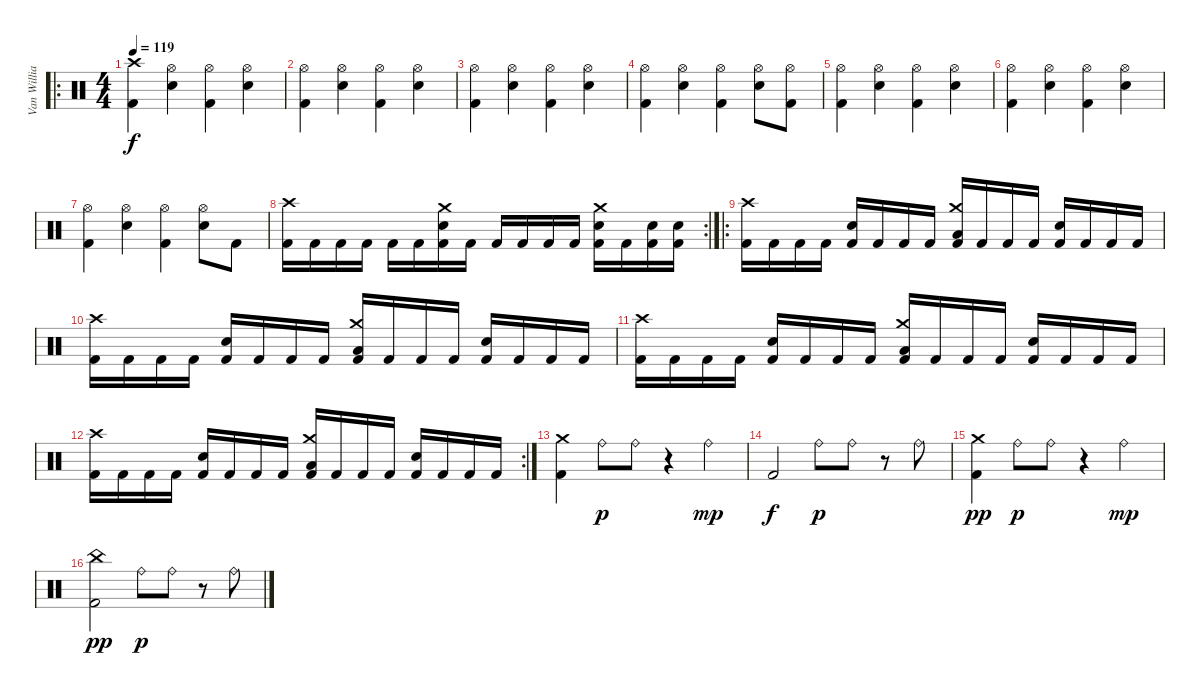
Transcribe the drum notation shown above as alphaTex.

\track ("Van Williams" "Van Willia") {instrument percussion}
\staff {score}
\articulation defaults
\ro
\ts (4 4)
\tempo 119
\clef neutral
\ks c
("Crash high (hit)" "Kick (hit) 2").4{dy f} ("Hi-Hat (open)" "Electric Snare (hit)").4 ("Hi-Hat (open)" "Kick (hit) 2").4 ("Hi-Hat (open)" "Electric Snare (hit)").4 |
("Hi-Hat (open)" "Kick (hit) 2").4 ("Hi-Hat (open)" "Electric Snare (hit)").4 ("Hi-Hat (open)" "Kick (hit) 2").4 ("Hi-Hat (open)" "Electric Snare (hit)").4 |
("Hi-Hat (open)" "Kick (hit) 2").4 ("Hi-Hat (open)" "Electric Snare (hit)").4 ("Hi-Hat (open)" "Kick (hit) 2").4 ("Hi-Hat (open)" "Electric Snare (hit)").4 |
("Hi-Hat (open)" "Kick (hit) 2").4 ("Hi-Hat (open)" "Electric Snare (hit)").4 ("Hi-Hat (open)" "Kick (hit) 2").4 ("Hi-Hat (open)" "Electric Snare (hit)").8 ("Hi-Hat (open)" "Kick (hit) 2").8 |
("Hi-Hat (open)" "Kick (hit) 2").4 ("Hi-Hat (open)" "Electric Snare (hit)").4 ("Hi-Hat (open)" "Kick (hit) 2").4 ("Hi-Hat (open)" "Electric Snare (hit)").4 |
("Hi-Hat (open)" "Kick (hit) 2").4 ("Hi-Hat (open)" "Electric Snare (hit)").4 ("Hi-Hat (open)" "Kick (hit) 2").4 ("Hi-Hat (open)" "Electric Snare (hit)").4 |
("Hi-Hat (open)" "Kick (hit) 2").4 ("Hi-Hat (open)" "Electric Snare (hit)").4 ("Hi-Hat (open)" "Kick (hit) 2").4 ("Hi-Hat (open)" "Electric Snare (hit)").8 "Kick (hit) 2".8 |
\rc 2
("Crash high (hit)" "Kick (hit) 2").16 "Kick (hit) 2".16 "Kick (hit) 2".16 "Kick (hit) 2".16 "Kick (hit) 2".16 "Kick (hit) 2".16 ("Crash medium (hit)" "Electric Snare (hit)" "Kick (hit) 2").16 "Kick (hit) 2".16 "Kick (hit) 2".16 "Kick (hit) 2".16 "Kick (hit) 2".16 "Kick (hit) 2".16 ("Crash medium (hit)" "Electric Snare (hit)" "Kick (hit) 2").16 "Kick (hit) 2".16 ("Electric Snare (hit)" "Kick (hit) 2").16 ("Electric Snare (hit)" "Kick (hit) 2").16 |
\ro
("Crash high (hit)" "Kick (hit) 2").16 "Kick (hit) 2".16 "Kick (hit) 2".16 "Kick (hit) 2".16 ("Electric Snare (hit)" "Kick (hit) 2").16 "Kick (hit) 2".16 "Kick (hit) 2".16 "Kick (hit) 2".16 ("Crash medium (hit)" "Low Floor Tom (hit)" "Kick (hit) 2").16 "Kick (hit) 2".16 "Kick (hit) 2".16 "Kick (hit) 2".16 ("Electric Snare (hit)" "Kick (hit) 2").16 "Kick (hit) 2".16 "Kick (hit) 2".16 "Kick (hit) 2".16 |
("Crash high (hit)" "Kick (hit) 2").16 "Kick (hit) 2".16 "Kick (hit) 2".16 "Kick (hit) 2".16 ("Electric Snare (hit)" "Kick (hit) 2").16 "Kick (hit) 2".16 "Kick (hit) 2".16 "Kick (hit) 2".16 ("Crash medium (hit)" "Low Floor Tom (hit)" "Kick (hit) 2").16 "Kick (hit) 2".16 "Kick (hit) 2".16 "Kick (hit) 2".16 ("Electric Snare (hit)" "Kick (hit) 2").16 "Kick (hit) 2".16 "Kick (hit) 2".16 "Kick (hit) 2".16 |
("Crash high (hit)" "Kick (hit) 2").16 "Kick (hit) 2".16 "Kick (hit) 2".16 "Kick (hit) 2".16 ("Electric Snare (hit)" "Kick (hit) 2").16 "Kick (hit) 2".16 "Kick (hit) 2".16 "Kick (hit) 2".16 ("Crash medium (hit)" "Low Floor Tom (hit)" "Kick (hit) 2").16 "Kick (hit) 2".16 "Kick (hit) 2".16 "Kick (hit) 2".16 ("Electric Snare (hit)" "Kick (hit) 2").16 "Kick (hit) 2".16 "Kick (hit) 2".16 "Kick (hit) 2".16 |
\rc 2
("Crash high (hit)" "Kick (hit) 2").16 "Kick (hit) 2".16 "Kick (hit) 2".16 "Kick (hit) 2".16 ("Electric Snare (hit)" "Kick (hit) 2").16 "Kick (hit) 2".16 "Kick (hit) 2".16 "Kick (hit) 2".16 ("Crash medium (hit)" "Low Floor Tom (hit)" "Kick (hit) 2").16 "Kick (hit) 2".16 "Kick (hit) 2".16 "Kick (hit) 2".16 ("Electric Snare (hit)" "Kick (hit) 2").16 "Kick (hit) 2".16 "Kick (hit) 2".16 "Kick (hit) 2".16 |
("Crash medium (hit)" "Kick (hit) 2").4 "Ride (bell)".8{dy p} "Ride (bell)".8 r.4 "Ride (bell)".4{dy mp} |
"Kick (hit) 2".2{dy f} "Ride (bell)".8{dy p} "Ride (bell)".8 r.8 "Ride (bell)".8 |
("Crash medium (hit)" "Kick (hit) 2").4{dy pp} "Ride (bell)".8{dy p} "Ride (bell)".8 r.4 "Ride (bell)".4{dy mp} |
("China (hit)" "Kick (hit) 2").2{dy pp} "Ride (bell)".8{dy p} "Ride (bell)".8 r.8 "Ride (bell)".8
